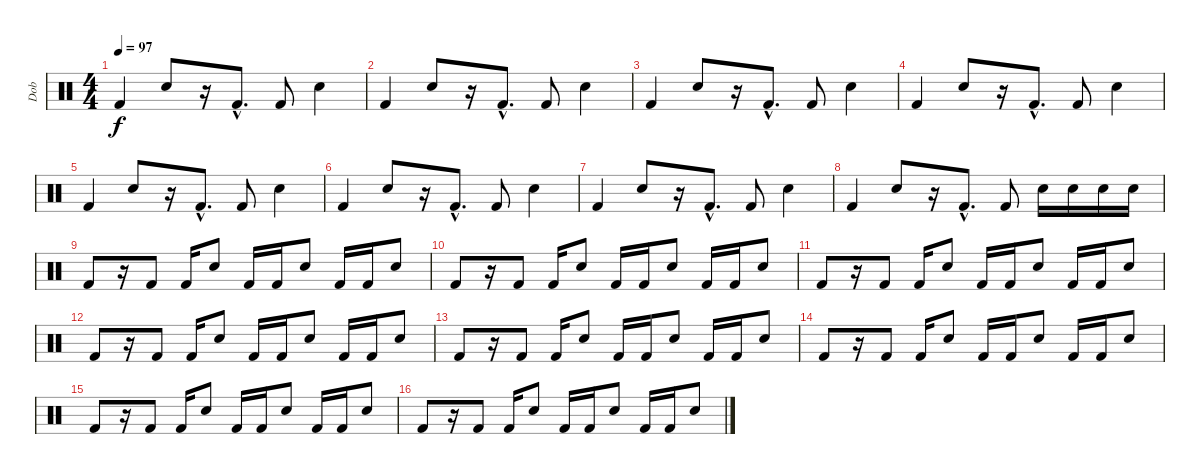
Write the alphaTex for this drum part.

\track ("Dob" "Dob") {instrument percussion}
\staff {score}
\articulation defaults
\ts (4 4)
\tempo 97
\clef neutral
\ks c "Kick (hit) 2".4{dy f} "Snare (hit) 2".8
r.16 "Kick (hit) 2"{hac}.8{d} "Kick (hit) 2".8 "Snare (hit) 2".4 |
"Kick (hit) 2".4 "Snare (hit) 2".8 r.16 "Kick (hit) 2"{hac}.8{d} "Kick (hit) 2".8 "Snare (hit) 2".4 |
"Kick (hit) 2".4 "Snare (hit) 2".8 r.16 "Kick (hit) 2"{hac}.8{d} "Kick (hit) 2".8 "Snare (hit) 2".4 |
"Kick (hit) 2".4 "Snare (hit) 2".8 r.16 "Kick (hit) 2"{hac}.8{d} "Kick (hit) 2".8 "Snare (hit) 2".4 |
"Kick (hit) 2".4 "Snare (hit) 2".8 r.16 "Kick (hit) 2"{hac}.8{d} "Kick (hit) 2".8 "Snare (hit) 2".4 |
"Kick (hit) 2".4 "Snare (hit) 2".8 r.16 "Kick (hit) 2"{hac}.8{d} "Kick (hit) 2".8 "Snare (hit) 2".4 |
"Kick (hit) 2".4 "Snare (hit) 2".8 r.16 "Kick (hit) 2"{hac}.8{d} "Kick (hit) 2".8 "Snare (hit) 2".4 |
"Kick (hit) 2".4 "Snare (hit) 2".8 r.16 "Kick (hit) 2"{hac}.8{d} "Kick (hit) 2".8 "Snare (hit) 2".16 "Snare (hit) 2".16 "Snare (hit) 2".16 "Snare (hit) 2".16 |
"Kick (hit) 2".8 r.16 "Kick (hit) 2".8 "Kick (hit) 2".16 "Snare (hit) 2".8 "Kick (hit) 2".16 "Kick (hit) 2".16 "Snare (hit) 2".8 "Kick (hit) 2".16 "Kick (hit) 2".16 "Snare (hit) 2".8 |
"Kick (hit) 2".8 r.16 "Kick (hit) 2".8 "Kick (hit) 2".16 "Snare (hit) 2".8 "Kick (hit) 2".16 "Kick (hit) 2".16 "Snare (hit) 2".8 "Kick (hit) 2".16 "Kick (hit) 2".16 "Snare (hit) 2".8 |
"Kick (hit) 2".8 r.16 "Kick (hit) 2".8 "Kick (hit) 2".16 "Snare (hit) 2".8 "Kick (hit) 2".16 "Kick (hit) 2".16 "Snare (hit) 2".8 "Kick (hit) 2".16 "Kick (hit) 2".16 "Snare (hit) 2".8 |
"Kick (hit) 2".8 r.16 "Kick (hit) 2".8 "Kick (hit) 2".16 "Snare (hit) 2".8 "Kick (hit) 2".16 "Kick (hit) 2".16 "Snare (hit) 2".8 "Kick (hit) 2".16 "Kick (hit) 2".16 "Snare (hit) 2".8 |
"Kick (hit) 2".8 r.16 "Kick (hit) 2".8 "Kick (hit) 2".16 "Snare (hit) 2".8 "Kick (hit) 2".16 "Kick (hit) 2".16 "Snare (hit) 2".8 "Kick (hit) 2".16 "Kick (hit) 2".16 "Snare (hit) 2".8 |
"Kick (hit) 2".8 r.16 "Kick (hit) 2".8 "Kick (hit) 2".16 "Snare (hit) 2".8 "Kick (hit) 2".16 "Kick (hit) 2".16 "Snare (hit) 2".8 "Kick (hit) 2".16 "Kick (hit) 2".16 "Snare (hit) 2".8 |
"Kick (hit) 2".8 r.16 "Kick (hit) 2".8 "Kick (hit) 2".16 "Snare (hit) 2".8 "Kick (hit) 2".16 "Kick (hit) 2".16 "Snare (hit) 2".8 "Kick (hit) 2".16 "Kick (hit) 2".16 "Snare (hit) 2".8 |
"Kick (hit) 2".8 r.16 "Kick (hit) 2".8 "Kick (hit) 2".16 "Snare (hit) 2".8 "Kick (hit) 2".16 "Kick (hit) 2".16 "Snare (hit) 2".8 "Kick (hit) 2".16 "Kick (hit) 2".16 "Snare (hit) 2".8
